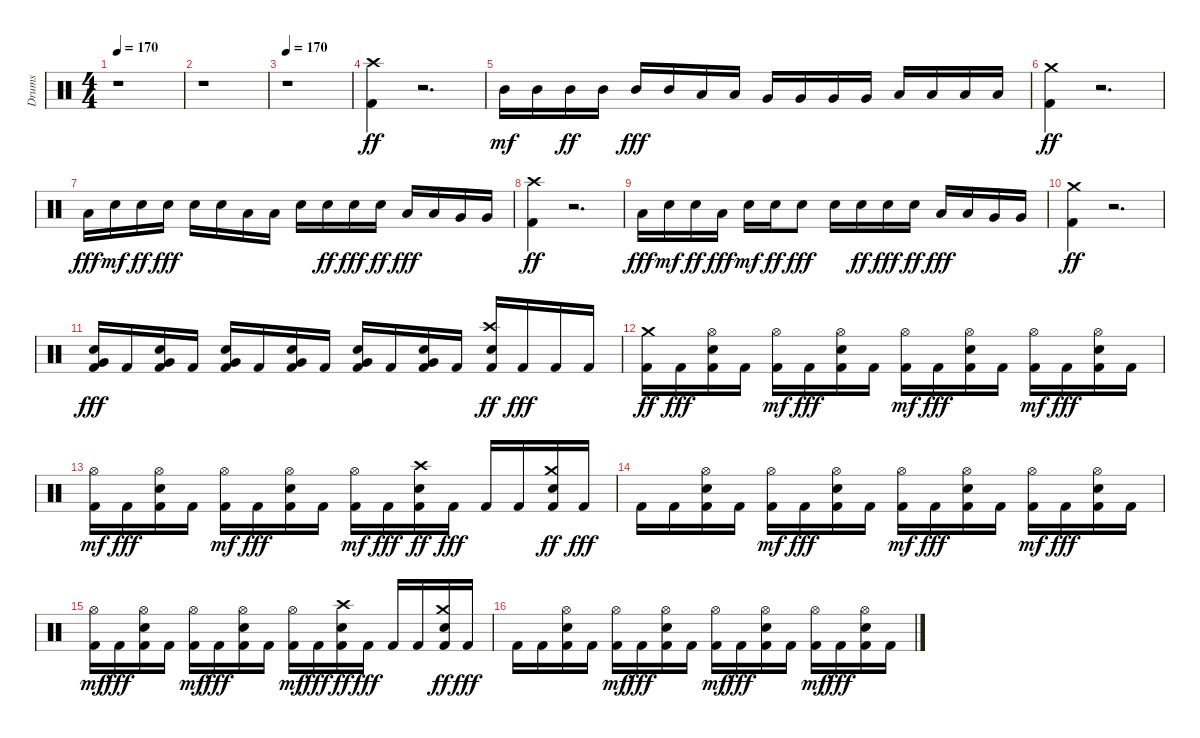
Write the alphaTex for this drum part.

\track ("Drums" "Drums") {instrument percussion}
\staff {score}
\articulation defaults
\ts (4 4)
\tempo 170
\clef neutral
\ks c
r.1{dy ff} |
r.1 |
\tempo 170
r.1 |
("Kick (hit) 2" "Crash high (hit)").4 r.2{d} |
"Mid Tom (hit)".16{dy mf} "Mid Tom (hit)".16 "Mid Tom (hit)".16{dy ff} "Mid Tom (hit)".16 "Mid Tom (hit)".16{dy fff} "Mid Tom (hit)".16 "Low Tom (hit)".16 "Low Tom (hit)".16 "Very Low Tom (hit)".16 "Very Low Tom (hit)".16 "Very Low Tom (hit)".16 "Very Low Tom (hit)".16 "Low Floor Tom (hit)".16 "Low Floor Tom (hit)".16 "Low Floor Tom (hit)".16 "Low Floor Tom (hit)".16 |
("Kick (hit) 2" "Crash medium (hit)").4{dy ff} r.2{d} |
"Low Tom (hit)".16{dy fff} "Snare (hit) 2".16{dy mf} "Snare (hit) 2".16{dy ff} "Snare (hit) 2".16{dy fff} "Snare (hit) 2".16 "Snare (hit) 2".16 "Low Tom (hit)".16 "Low Tom (hit)".16 "Snare (hit) 2".16 "Snare (hit) 2".16{dy ff} "Snare (hit) 2".16{dy fff} "Snare (hit) 2".16{dy ff} "Low Tom (hit)".16{dy fff} "Low Tom (hit)".16 "Very Low Tom (hit)".16 "Very Low Tom (hit)".16 |
("Kick (hit) 2" "Crash high (hit)").4{dy ff} r.2{d} |
"Low Tom (hit)".16{dy fff} "Snare (hit) 2".16{dy mf} "Snare (hit) 2".16{dy ff} "Low Tom (hit)".16{dy fff} "Snare (hit) 2".16{dy mf} "Snare (hit) 2".16{dy ff} "Snare (hit) 2".8{dy fff} "Snare (hit) 2".16 "Snare (hit) 2".16{dy ff} "Snare (hit) 2".16{dy fff} "Snare (hit) 2".16{dy ff} "Low Tom (hit)".16{dy fff} "Low Tom (hit)".16 "Very Low Tom (hit)".16 "Very Low Tom (hit)".16 |
("Kick (hit) 2" "Crash medium (hit)").4{dy ff} r.2{d} |
("Kick (hit) 2" "Snare (hit) 2" "Very Low Tom (hit)").16{dy fff} "Kick (hit) 2".16 ("Kick (hit) 2" "Snare (hit) 2" "Very Low Tom (hit)").16 "Kick (hit) 2".16 ("Kick (hit) 2" "Snare (hit) 2" "Very Low Tom (hit)").16 "Kick (hit) 2".16 ("Kick (hit) 2" "Snare (hit) 2" "Very Low Tom (hit)").16 "Kick (hit) 2".16 ("Kick (hit) 2" "Snare (hit) 2" "Very Low Tom (hit)").16 "Kick (hit) 2".16 ("Kick (hit) 2" "Snare (hit) 2" "Very Low Tom (hit)").16 "Kick (hit) 2".16 ("Kick (hit) 2" "Snare (hit) 2" "Crash high (hit)").16{dy ff} "Kick (hit) 2".16{dy fff} "Kick (hit) 2".16 "Kick (hit) 2".16 |
("Kick (hit) 2" "Crash medium (hit)").16{dy ff} "Kick (hit) 2".16{dy fff} ("Kick (hit) 2" "Snare (hit) 2" "Hi-Hat (open)").16 "Kick (hit) 2".16 ("Kick (hit) 2" "Hi-Hat (open)").16{dy mf} "Kick (hit) 2".16{dy fff} ("Kick (hit) 2" "Snare (hit) 2" "Hi-Hat (open)").16 "Kick (hit) 2".16 ("Kick (hit) 2" "Hi-Hat (open)").16{dy mf} "Kick (hit) 2".16{dy fff} ("Kick (hit) 2" "Snare (hit) 2" "Hi-Hat (open)").16 "Kick (hit) 2".16 ("Kick (hit) 2" "Hi-Hat (open)").16{dy mf} "Kick (hit) 2".16{dy fff} ("Kick (hit) 2" "Snare (hit) 2" "Hi-Hat (open)").16 "Kick (hit) 2".16 |
("Kick (hit) 2" "Hi-Hat (open)").16{dy mf} "Kick (hit) 2".16{dy fff} ("Kick (hit) 2" "Snare (hit) 2" "Hi-Hat (open)").16 "Kick (hit) 2".16 ("Kick (hit) 2" "Hi-Hat (open)").16{dy mf} "Kick (hit) 2".16{dy fff} ("Kick (hit) 2" "Snare (hit) 2" "Hi-Hat (open)").16 "Kick (hit) 2".16 ("Kick (hit) 2" "Hi-Hat (open)").16{dy mf} "Kick (hit) 2".16{dy fff} ("Kick (hit) 2" "Snare (hit) 2" "Crash high (hit)").16{dy ff} "Kick (hit) 2".16{dy fff} "Kick (hit) 2".16 "Kick (hit) 2".16 ("Kick (hit) 2" "Snare (hit) 2" "Crash medium (hit)").16{dy ff} "Kick (hit) 2".16{dy fff} |
"Kick (hit) 2".16 "Kick (hit) 2".16 ("Kick (hit) 2" "Snare (hit) 2" "Hi-Hat (open)").16 "Kick (hit) 2".16 ("Kick (hit) 2" "Hi-Hat (open)").16{dy mf} "Kick (hit) 2".16{dy fff} ("Kick (hit) 2" "Snare (hit) 2" "Hi-Hat (open)").16 "Kick (hit) 2".16 ("Kick (hit) 2" "Hi-Hat (open)").16{dy mf} "Kick (hit) 2".16{dy fff} ("Kick (hit) 2" "Snare (hit) 2" "Hi-Hat (open)").16 "Kick (hit) 2".16 ("Kick (hit) 2" "Hi-Hat (open)").16{dy mf} "Kick (hit) 2".16{dy fff} ("Kick (hit) 2" "Snare (hit) 2" "Hi-Hat (open)").16 "Kick (hit) 2".16 |
("Kick (hit) 2" "Hi-Hat (open)").16{dy mf} "Kick (hit) 2".16{dy fff} ("Kick (hit) 2" "Snare (hit) 2" "Hi-Hat (open)").16 "Kick (hit) 2".16 ("Kick (hit) 2" "Hi-Hat (open)").16{dy mf} "Kick (hit) 2".16{dy fff} ("Kick (hit) 2" "Snare (hit) 2" "Hi-Hat (open)").16 "Kick (hit) 2".16 ("Kick (hit) 2" "Hi-Hat (open)").16{dy mf} "Kick (hit) 2".16{dy fff} ("Kick (hit) 2" "Snare (hit) 2" "Crash high (hit)").16{dy ff} "Kick (hit) 2".16{dy fff} "Kick (hit) 2".16 "Kick (hit) 2".16 ("Kick (hit) 2" "Snare (hit) 2" "Crash medium (hit)").16{dy ff} "Kick (hit) 2".16{dy fff} |
"Kick (hit) 2".16 "Kick (hit) 2".16 ("Kick (hit) 2" "Snare (hit) 2" "Hi-Hat (open)").16 "Kick (hit) 2".16 ("Kick (hit) 2" "Hi-Hat (open)").16{dy mf} "Kick (hit) 2".16{dy fff} ("Kick (hit) 2" "Snare (hit) 2" "Hi-Hat (open)").16 "Kick (hit) 2".16 ("Kick (hit) 2" "Hi-Hat (open)").16{dy mf} "Kick (hit) 2".16{dy fff} ("Kick (hit) 2" "Snare (hit) 2" "Hi-Hat (open)").16 "Kick (hit) 2".16 ("Kick (hit) 2" "Hi-Hat (open)").16{dy mf} "Kick (hit) 2".16{dy fff} ("Kick (hit) 2" "Snare (hit) 2" "Hi-Hat (open)").16 "Kick (hit) 2".16
